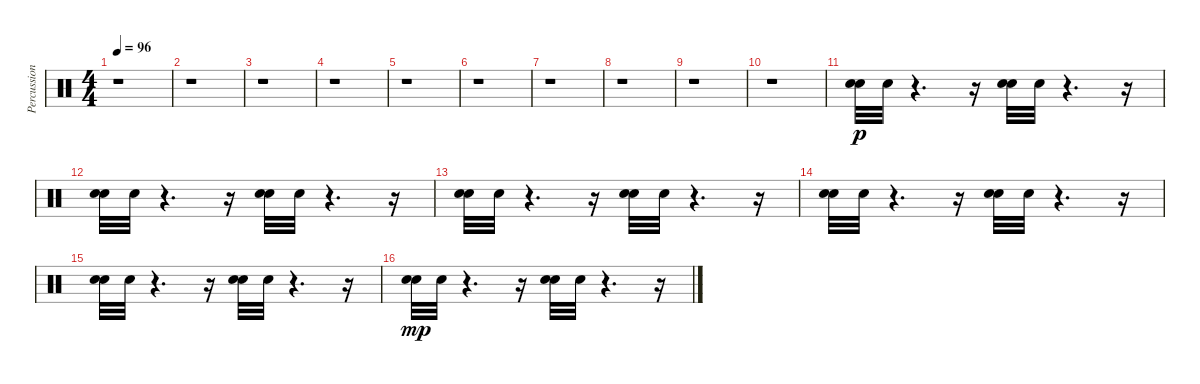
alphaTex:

\track ("Percussion" "Percussion") {instrument percussion}
\staff {score}
\articulation defaults
\ts (4 4)
\tempo 96
\clef neutral
\ks c
r.1{dy f} |
r.1 |
r.1 |
r.1 |
r.1 |
r.1 |
r.1 |
r.1 |
r.1 |
r.1 |
("Snare (hit) 2" "Snare (hit) 2").32{dy p} "Snare (hit) 2".32 r.4{d} r.16 ("Snare (hit) 2" "Snare (hit) 2").32 "Snare (hit) 2".32 r.4{d} r.16 |
("Snare (hit) 2" "Snare (hit) 2").32 "Snare (hit) 2".32 r.4{d} r.16 ("Snare (hit) 2" "Snare (hit) 2").32 "Snare (hit) 2".32 r.4{d} r.16 |
("Snare (hit) 2" "Snare (hit) 2").32 "Snare (hit) 2".32 r.4{d} r.16 ("Snare (hit) 2" "Snare (hit) 2").32 "Snare (hit) 2".32 r.4{d} r.16 |
("Snare (hit) 2" "Snare (hit) 2").32 "Snare (hit) 2".32 r.4{d} r.16 ("Snare (hit) 2" "Snare (hit) 2").32 "Snare (hit) 2".32 r.4{d} r.16 |
("Snare (hit) 2" "Snare (hit) 2").32 "Snare (hit) 2".32 r.4{d} r.16 ("Snare (hit) 2" "Snare (hit) 2").32 "Snare (hit) 2".32 r.4{d} r.16 |
("Snare (hit) 2" "Snare (hit) 2").32{dy mp} "Snare (hit) 2".32 r.4{d} r.16 ("Snare (hit) 2" "Snare (hit) 2").32 "Snare (hit) 2".32 r.4{d} r.16
